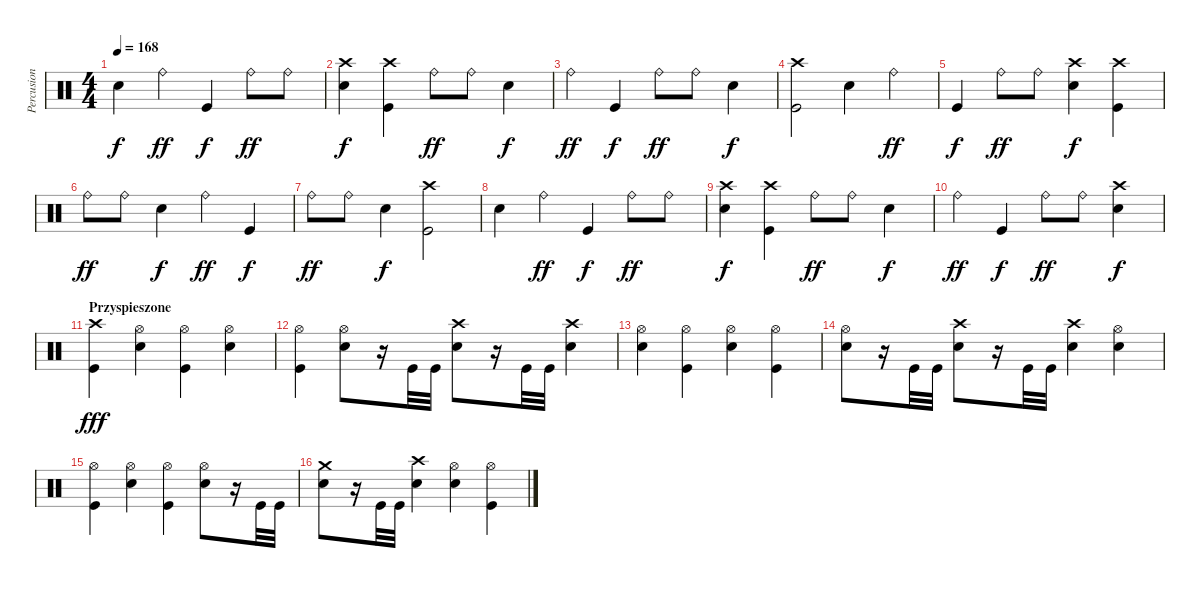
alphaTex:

\track ("Percusion" "Percusion") {instrument percussion}
\staff {score}
\articulation defaults
\ts (4 4)
\tempo 168
\clef neutral
\ks c "Snare (hit) 2".4{dy f} "Ride (bell)".4{dy ff} "Kick (hit)".4{dy f} "Ride (bell)".8{dy ff} "Ride (bell)".8
|
("Crash high (hit)" "Snare (hit) 2").4{dy f} ("Crash high (hit)" "Kick (hit)").4 "Ride (bell)".8{dy ff} "Ride (bell)".8 "Snare (hit) 2".4{dy f} |
"Ride (bell)".4{dy ff} "Kick (hit)".4{dy f} "Ride (bell)".8{dy ff} "Ride (bell)".8 "Snare (hit) 2".4{dy f} |
("Crash high (hit)" "Kick (hit)").2 "Snare (hit) 2".4 "Ride (bell)".4{dy ff} |
"Kick (hit)".4{dy f} "Ride (bell)".8{dy ff} "Ride (bell)".8 ("Crash high (hit)" "Snare (hit) 2").4{dy f} ("Crash high (hit)" "Kick (hit)").4 |
"Ride (bell)".8{dy ff} "Ride (bell)".8 "Snare (hit) 2".4{dy f} "Ride (bell)".4{dy ff} "Kick (hit)".4{dy f} |
"Ride (bell)".8{dy ff} "Ride (bell)".8 "Snare (hit) 2".4{dy f} ("Crash high (hit)" "Kick (hit)").2 |
"Snare (hit) 2".4 "Ride (bell)".4{dy ff} "Kick (hit)".4{dy f} "Ride (bell)".8{dy ff} "Ride (bell)".8 |
("Crash high (hit)" "Snare (hit) 2").4{dy f} ("Crash high (hit)" "Kick (hit)").4 "Ride (bell)".8{dy ff} "Ride (bell)".8 "Snare (hit) 2".4{dy f} |
"Ride (bell)".4{dy ff} "Kick (hit)".4{dy f} "Ride (bell)".8{dy ff} "Ride (bell)".8 ("Crash high (hit)" "Snare (hit) 2").4{dy f} |
\section ("" "Przyspieszone")
("Crash high (hit)" "Kick (hit)").4{dy fff} ("Hi-Hat (open)" "Snare (hit) 2").4 ("Hi-Hat (open)" "Kick (hit)").4 ("Hi-Hat (open)" "Snare (hit) 2").4 |
("Hi-Hat (open)" "Kick (hit)").4 ("Hi-Hat (open)" "Snare (hit) 2").8 r.16 "Kick (hit)".32 "Kick (hit)".32 ("Crash high (hit)" "Snare (hit) 2").8 r.16 "Kick (hit)".32 "Kick (hit)".32 ("Crash high (hit)" "Snare (hit) 2").4 |
("Hi-Hat (open)" "Snare (hit) 2").4 ("Hi-Hat (open)" "Kick (hit)").4 ("Hi-Hat (open)" "Snare (hit) 2").4 ("Hi-Hat (open)" "Kick (hit)").4 |
("Hi-Hat (open)" "Snare (hit) 2").8 r.16 "Kick (hit)".32 "Kick (hit)".32 ("Crash high (hit)" "Snare (hit) 2").8 r.16 "Kick (hit)".32 "Kick (hit)".32 ("Crash high (hit)" "Snare (hit) 2").4 ("Hi-Hat (open)" "Snare (hit) 2").4 |
("Hi-Hat (open)" "Kick (hit)").4 ("Hi-Hat (open)" "Snare (hit) 2").4 ("Hi-Hat (open)" "Kick (hit)").4 ("Hi-Hat (open)" "Snare (hit) 2").8 r.16 "Kick (hit)".32 "Kick (hit)".32 |
("Crash medium (hit)" "Snare (hit) 2").8 r.16 "Kick (hit)".32 "Kick (hit)".32 ("Crash high (hit)" "Snare (hit) 2").4 ("Hi-Hat (open)" "Snare (hit) 2").4 ("Hi-Hat (open)" "Kick (hit)").4
